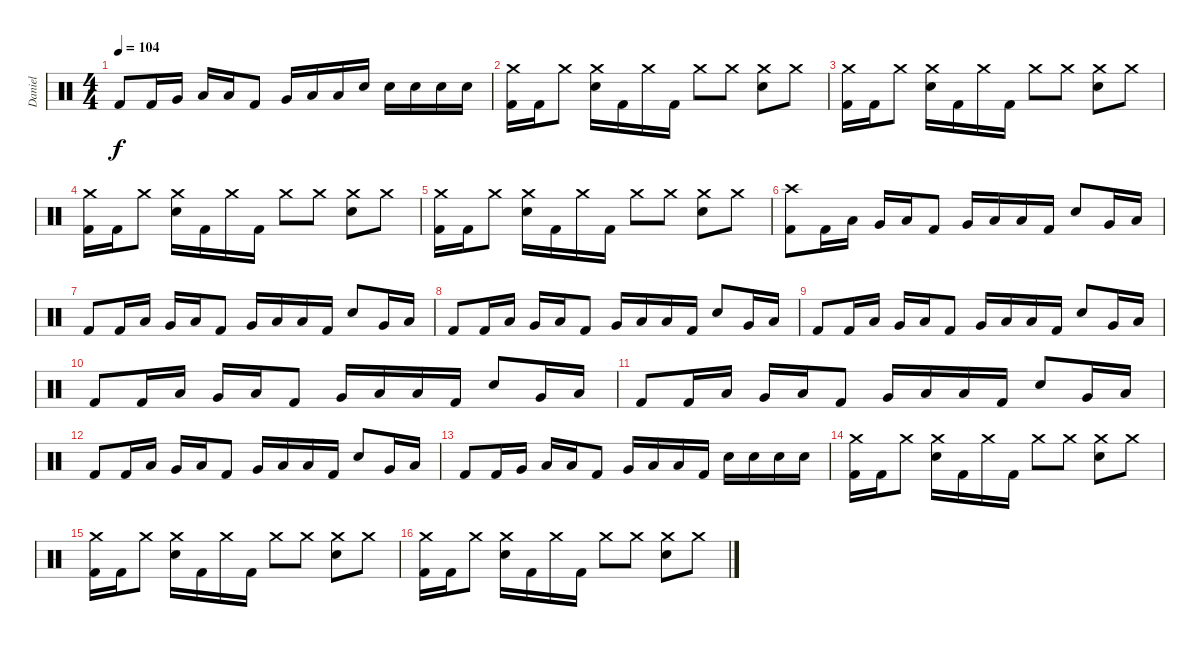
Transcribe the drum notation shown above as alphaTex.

\track ("Daniel" "Daniel") {instrument percussion}
\staff {score}
\articulation defaults
\ts (4 4)
\tempo 104
\clef neutral
\ks c "Kick (hit) 2".8{dy f} "Kick (hit) 2".16 "Very Low Tom (hit)".16 "Low Tom (hit)".16 "Low Tom (hit)".16 "Kick (hit) 2".8 "Very Low Tom (hit)".16 "Low Tom (hit)".16 "Low Floor Tom (hit)".16 "Snare (hit) 2".16 "Snare (hit) 2".16 "Snare (hit) 2".16 "Snare (hit) 2".16 "Snare (hit) 2".16
|
("Crash medium (hit)" "Kick (hit) 2").16 "Kick (hit) 2".16 "Crash medium (hit)".8 ("Crash medium (hit)" "Snare (hit) 2").16 "Kick (hit) 2".16 "Crash medium (hit)".16 "Kick (hit) 2".16 "Crash medium (hit)".8 "Crash medium (hit)".8 ("Crash medium (hit)" "Snare (hit) 2").8 "Crash medium (hit)".8 |
("Crash medium (hit)" "Kick (hit) 2").16 "Kick (hit) 2".16 "Crash medium (hit)".8 ("Crash medium (hit)" "Snare (hit) 2").16 "Kick (hit) 2".16 "Crash medium (hit)".16 "Kick (hit) 2".16 "Crash medium (hit)".8 "Crash medium (hit)".8 ("Crash medium (hit)" "Snare (hit) 2").8 "Crash medium (hit)".8 |
("Crash medium (hit)" "Kick (hit) 2").16 "Kick (hit) 2".16 "Crash medium (hit)".8 ("Crash medium (hit)" "Snare (hit) 2").16 "Kick (hit) 2".16 "Crash medium (hit)".16 "Kick (hit) 2".16 "Crash medium (hit)".8 "Crash medium (hit)".8 ("Crash medium (hit)" "Snare (hit) 2").8 "Crash medium (hit)".8 |
("Crash medium (hit)" "Kick (hit) 2").16 "Kick (hit) 2".16 "Crash medium (hit)".8 ("Crash medium (hit)" "Snare (hit) 2").16 "Kick (hit) 2".16 "Crash medium (hit)".16 "Kick (hit) 2".16 "Crash medium (hit)".8 "Crash medium (hit)".8 ("Crash medium (hit)" "Snare (hit) 2").8 "Crash medium (hit)".8 |
("Crash high (hit)" "Kick (hit) 2").8{volume 13} "Kick (hit) 2".16 "Low Tom (hit)".16 "Very Low Tom (hit)".16 "Low Tom (hit)".16 "Kick (hit) 2".8 "Very Low Tom (hit)".16 "Low Tom (hit)".16 "Low Floor Tom (hit)".16 "Kick (hit) 2".16 "Snare (hit) 2".8 "Very Low Tom (hit)".16 "Low Tom (hit)".16 |
"Kick (hit) 2".8 "Kick (hit) 2".16 "Low Tom (hit)".16 "Very Low Tom (hit)".16 "Low Tom (hit)".16 "Kick (hit) 2".8 "Very Low Tom (hit)".16 "Low Tom (hit)".16 "Low Floor Tom (hit)".16 "Kick (hit) 2".16 "Snare (hit) 2".8 "Very Low Tom (hit)".16 "Low Tom (hit)".16 |
"Kick (hit) 2".8 "Kick (hit) 2".16 "Low Tom (hit)".16 "Very Low Tom (hit)".16 "Low Tom (hit)".16 "Kick (hit) 2".8 "Very Low Tom (hit)".16 "Low Tom (hit)".16 "Low Floor Tom (hit)".16 "Kick (hit) 2".16 "Snare (hit) 2".8 "Very Low Tom (hit)".16 "Low Tom (hit)".16 |
"Kick (hit) 2".8 "Kick (hit) 2".16 "Low Tom (hit)".16 "Very Low Tom (hit)".16 "Low Tom (hit)".16 "Kick (hit) 2".8 "Very Low Tom (hit)".16 "Low Tom (hit)".16 "Low Floor Tom (hit)".16 "Kick (hit) 2".16 "Snare (hit) 2".8 "Very Low Tom (hit)".16 "Low Tom (hit)".16 |
"Kick (hit) 2".8 "Kick (hit) 2".16 "Low Tom (hit)".16 "Very Low Tom (hit)".16 "Low Tom (hit)".16 "Kick (hit) 2".8 "Very Low Tom (hit)".16 "Low Tom (hit)".16 "Low Floor Tom (hit)".16 "Kick (hit) 2".16 "Snare (hit) 2".8 "Very Low Tom (hit)".16 "Low Tom (hit)".16 |
"Kick (hit) 2".8 "Kick (hit) 2".16 "Low Tom (hit)".16 "Very Low Tom (hit)".16 "Low Tom (hit)".16 "Kick (hit) 2".8 "Very Low Tom (hit)".16 "Low Tom (hit)".16 "Low Floor Tom (hit)".16 "Kick (hit) 2".16 "Snare (hit) 2".8 "Very Low Tom (hit)".16 "Low Tom (hit)".16 |
"Kick (hit) 2".8 "Kick (hit) 2".16 "Low Tom (hit)".16 "Very Low Tom (hit)".16 "Low Tom (hit)".16 "Kick (hit) 2".8 "Very Low Tom (hit)".16 "Low Tom (hit)".16 "Low Floor Tom (hit)".16 "Kick (hit) 2".16 "Snare (hit) 2".8 "Very Low Tom (hit)".16 "Low Tom (hit)".16 |
"Kick (hit) 2".8 "Kick (hit) 2".16 "Very Low Tom (hit)".16 "Low Tom (hit)".16 "Low Tom (hit)".16 "Kick (hit) 2".8 "Very Low Tom (hit)".16 "Low Tom (hit)".16 "Low Floor Tom (hit)".16 "Kick (hit) 2".16 "Snare (hit) 2".16 "Snare (hit) 2".16 "Snare (hit) 2".16 "Snare (hit) 2".16 |
("Crash medium (hit)" "Kick (hit) 2").16 "Kick (hit) 2".16 "Crash medium (hit)".8 ("Crash medium (hit)" "Snare (hit) 2").16 "Kick (hit) 2".16 "Crash medium (hit)".16 "Kick (hit) 2".16 "Crash medium (hit)".8 "Crash medium (hit)".8 ("Crash medium (hit)" "Snare (hit) 2").8 "Crash medium (hit)".8 |
("Crash medium (hit)" "Kick (hit) 2").16 "Kick (hit) 2".16 "Crash medium (hit)".8 ("Crash medium (hit)" "Snare (hit) 2").16 "Kick (hit) 2".16 "Crash medium (hit)".16 "Kick (hit) 2".16 "Crash medium (hit)".8 "Crash medium (hit)".8 ("Crash medium (hit)" "Snare (hit) 2").8 "Crash medium (hit)".8 |
("Crash medium (hit)" "Kick (hit) 2").16 "Kick (hit) 2".16 "Crash medium (hit)".8 ("Crash medium (hit)" "Snare (hit) 2").16 "Kick (hit) 2".16 "Crash medium (hit)".16 "Kick (hit) 2".16 "Crash medium (hit)".8 "Crash medium (hit)".8 ("Crash medium (hit)" "Snare (hit) 2").8 "Crash medium (hit)".8
